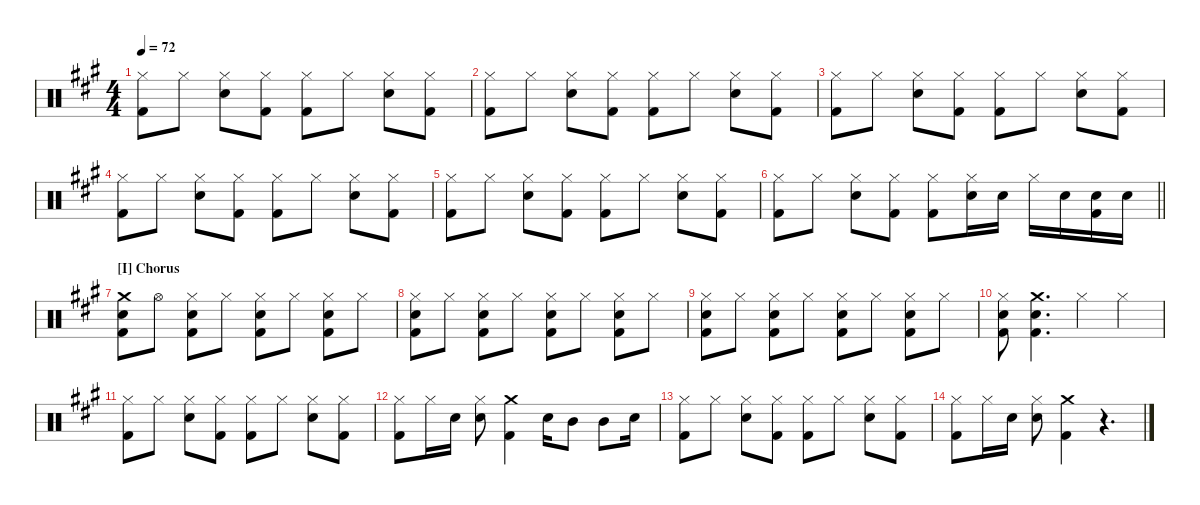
\hideDynamics
\bracketExtendMode nobrackets
\singleTrackTrackNamePolicy hidden
\multiTrackTrackNamePolicy hidden
\otherSystemsTrackNameOrientation horizontal
\track ("Drumkit" "Drums") {instrument percussion}
\staff {score}
\articulation defaults
\ts (4 4)
\tempo 72
\clef neutral
\ks a
("Hi-Hat (closed)"{acc forcenatural} "Kick (hit) 2"{acc forcenatural}).8{dy mf beam Down} "Hi-Hat (closed)"{acc forcenatural}.8{beam Down} ("Hi-Hat (closed)"{acc forcenatural} "Snare (hit) 2"{acc forcenatural}).8{beam Down} ("Hi-Hat (closed)"{acc forcenatural} "Kick (hit) 2"{acc forcenatural}).8{beam Down} ("Hi-Hat (closed)"{acc forcenatural} "Kick (hit) 2"{acc forcenatural}).8{beam Down} "Hi-Hat (closed)"{acc forcenatural}.8{beam Down} ("Hi-Hat (closed)"{acc forcenatural} "Snare (hit) 2"{acc forcenatural}).8{beam Down} ("Hi-Hat (closed)"{acc forcenatural} "Kick (hit) 2"{acc forcenatural}).8{beam Down} |
("Hi-Hat (closed)"{acc forcenatural} "Kick (hit) 2"{acc forcenatural}).8{beam Down} "Hi-Hat (closed)"{acc forcenatural}.8{beam Down} ("Hi-Hat (closed)"{acc forcenatural} "Snare (hit) 2"{acc forcenatural}).8{beam Down} ("Hi-Hat (closed)"{acc forcenatural} "Kick (hit) 2"{acc forcenatural}).8{beam Down} ("Hi-Hat (closed)"{acc forcenatural} "Kick (hit) 2"{acc forcenatural}).8{beam Down} "Hi-Hat (closed)"{acc forcenatural}.8{beam Down} ("Hi-Hat (closed)"{acc forcenatural} "Snare (hit) 2"{acc forcenatural}).8{beam Down} ("Hi-Hat (closed)"{acc forcenatural} "Kick (hit) 2"{acc forcenatural}).8{beam Down} |
("Hi-Hat (closed)"{acc forcenatural} "Kick (hit) 2"{acc forcenatural}).8{beam Down} "Hi-Hat (closed)"{acc forcenatural}.8{beam Down} ("Hi-Hat (closed)"{acc forcenatural} "Snare (hit) 2"{acc forcenatural}).8{beam Down} ("Hi-Hat (closed)"{acc forcenatural} "Kick (hit) 2"{acc forcenatural}).8{beam Down} ("Hi-Hat (closed)"{acc forcenatural} "Kick (hit) 2"{acc forcenatural}).8{beam Down} "Hi-Hat (closed)"{acc forcenatural}.8{beam Down} ("Hi-Hat (closed)"{acc forcenatural} "Snare (hit) 2"{acc forcenatural}).8{beam Down} ("Hi-Hat (closed)"{acc forcenatural} "Kick (hit) 2"{acc forcenatural}).8{beam Down} |
("Hi-Hat (closed)"{acc forcenatural} "Kick (hit) 2"{acc forcenatural}).8{beam Down} "Hi-Hat (closed)"{acc forcenatural}.8{beam Down} ("Hi-Hat (closed)"{acc forcenatural} "Snare (hit) 2"{acc forcenatural}).8{beam Down} ("Hi-Hat (closed)"{acc forcenatural} "Kick (hit) 2"{acc forcenatural}).8{beam Down} ("Hi-Hat (closed)"{acc forcenatural} "Kick (hit) 2"{acc forcenatural}).8{beam Down} "Hi-Hat (closed)"{acc forcenatural}.8{beam Down} ("Hi-Hat (closed)"{acc forcenatural} "Snare (hit) 2"{acc forcenatural}).8{beam Down} ("Hi-Hat (closed)"{acc forcenatural} "Kick (hit) 2"{acc forcenatural}).8{beam Down} |
("Hi-Hat (closed)"{acc forcenatural} "Kick (hit) 2"{acc forcenatural}).8{beam Down} "Hi-Hat (closed)"{acc forcenatural}.8{beam Down} ("Hi-Hat (closed)"{acc forcenatural} "Snare (hit) 2"{acc forcenatural}).8{beam Down} ("Hi-Hat (closed)"{acc forcenatural} "Kick (hit) 2"{acc forcenatural}).8{beam Down} ("Hi-Hat (closed)"{acc forcenatural} "Kick (hit) 2"{acc forcenatural}).8{beam Down} "Hi-Hat (closed)"{acc forcenatural}.8{beam Down} ("Hi-Hat (closed)"{acc forcenatural} "Snare (hit) 2"{acc forcenatural}).8{beam Down} ("Hi-Hat (closed)"{acc forcenatural} "Kick (hit) 2"{acc forcenatural}).8{beam Down} |
\barLineRight lightlight
("Kick (hit) 2"{acc forcenatural} "Hi-Hat (closed)"{acc forcenatural}).8{beam Down} "Hi-Hat (closed)"{acc forcenatural}.8{beam Down} ("Snare (hit) 2"{acc forcenatural} "Hi-Hat (closed)"{acc forcenatural}).8{beam Down} ("Kick (hit) 2"{acc forcenatural} "Hi-Hat (closed)"{acc forcenatural}).8{beam Down} ("Kick (hit) 2"{acc forcenatural} "Hi-Hat (closed)"{acc forcenatural}).8{beam Down} ("Snare (hit) 2"{acc forcenatural} "Hi-Hat (closed)"{acc forcenatural}).16{beam Down} "Snare (hit) 2"{acc forcenatural}.16{beam Down} "Hi-Hat (closed)"{acc forcenatural}.16{beam Down} "Snare (hit) 2"{acc forcenatural}.16{beam Down} ("Snare (hit) 2"{acc forcenatural} "Kick (hit) 2"{acc forcenatural}).16{beam Down} "Snare (hit) 2"{acc forcenatural}.16{beam Down} |
\section ("I" "Chorus")
("Snare (hit) 2"{acc forcenatural} "Crash medium (hit)"{acc forcenatural} "Kick (hit) 2"{acc forcenatural}).8{beam Down} "Hi-Hat (open)"{acc forcenatural}.8{beam Down} ("Kick (hit) 2"{acc forcenatural} "Hi-Hat (closed)"{acc forcenatural} "Snare (hit) 2"{acc forcenatural}).8{beam Down} "Hi-Hat (closed)"{acc forcenatural}.8{beam Down} ("Kick (hit) 2"{acc forcenatural} "Snare (hit) 2"{acc forcenatural} "Hi-Hat (closed)"{acc forcenatural}).8{beam Down} "Hi-Hat (closed)"{acc forcenatural}.8{beam Down} ("Kick (hit) 2"{acc forcenatural} "Snare (hit) 2"{acc forcenatural} "Hi-Hat (closed)"{acc forcenatural}).8{beam Down} "Hi-Hat (closed)"{acc forcenatural}.8{beam Down} |
("Hi-Hat (closed)"{acc forcenatural} "Snare (hit) 2"{acc forcenatural} "Kick (hit) 2"{acc forcenatural}).8{beam Down} "Hi-Hat (closed)"{acc forcenatural}.8{beam Down} ("Kick (hit) 2"{acc forcenatural} "Hi-Hat (closed)"{acc forcenatural} "Snare (hit) 2"{acc forcenatural}).8{beam Down} "Hi-Hat (closed)"{acc forcenatural}.8{beam Down} ("Kick (hit) 2"{acc forcenatural} "Snare (hit) 2"{acc forcenatural} "Hi-Hat (closed)"{acc forcenatural}).8{beam Down} "Hi-Hat (closed)"{acc forcenatural}.8{beam Down} ("Kick (hit) 2"{acc forcenatural} "Snare (hit) 2"{acc forcenatural} "Hi-Hat (closed)"{acc forcenatural}).8{beam Down} "Hi-Hat (closed)"{acc forcenatural}.8{beam Down} |
("Hi-Hat (closed)"{acc forcenatural} "Snare (hit) 2"{acc forcenatural} "Kick (hit) 2"{acc forcenatural}).8{beam Down} "Hi-Hat (closed)"{acc forcenatural}.8{beam Down} ("Kick (hit) 2"{acc forcenatural} "Hi-Hat (closed)"{acc forcenatural} "Snare (hit) 2"{acc forcenatural}).8{beam Down} "Hi-Hat (closed)"{acc forcenatural}.8{beam Down} ("Kick (hit) 2"{acc forcenatural} "Snare (hit) 2"{acc forcenatural} "Hi-Hat (closed)"{acc forcenatural}).8{beam Down} "Hi-Hat (closed)"{acc forcenatural}.8{beam Down} ("Kick (hit) 2"{acc forcenatural} "Snare (hit) 2"{acc forcenatural} "Hi-Hat (closed)"{acc forcenatural}).8{beam Down} "Hi-Hat (closed)"{acc forcenatural}.8{beam Down} |
("Hi-Hat (closed)"{acc forcenatural} "Snare (hit) 2"{acc forcenatural} "Kick (hit) 2"{acc forcenatural}).8{beam Down} ("Snare (hit) 2"{acc forcenatural} "Kick (hit) 2"{acc forcenatural} "Crash medium (hit)"{acc forcenatural}).4{d beam Down} "Hi-Hat (closed)"{acc forcenatural}.4{beam Down} "Hi-Hat (closed)"{acc forcenatural}.4{beam Down} |
("Hi-Hat (closed)"{acc forcenatural} "Kick (hit) 2"{acc forcenatural}).8{beam Down} "Hi-Hat (closed)"{acc forcenatural}.8{beam Down} ("Hi-Hat (closed)"{acc forcenatural} "Snare (hit) 2"{acc forcenatural}).8{beam Down} ("Hi-Hat (closed)"{acc forcenatural} "Kick (hit) 2"{acc forcenatural}).8{beam Down} ("Hi-Hat (closed)"{acc forcenatural} "Kick (hit) 2"{acc forcenatural}).8{beam Down} "Hi-Hat (closed)"{acc forcenatural}.8{beam Down} ("Hi-Hat (closed)"{acc forcenatural} "Snare (hit) 2"{acc forcenatural}).8{beam Down} ("Hi-Hat (closed)"{acc forcenatural} "Kick (hit) 2"{acc forcenatural}).8{beam Down} |
("Hi-Hat (closed)"{acc forcenatural} "Kick (hit) 2"{acc forcenatural}).8{beam Down} "Hi-Hat (closed)"{acc forcenatural}.16{beam Down} "Snare (hit) 2"{acc forcenatural}.16{beam Down} ("Hi-Hat (closed)"{acc forcenatural} "Snare (hit) 2"{acc forcenatural}).8{beam Down} ("Crash medium (hit)"{acc forcenatural} "Kick (hit) 2"{acc forcenatural}).4{beam Down} "Snare (hit) 2"{acc forcenatural}.16{beam Down} "Mid Tom (hit)"{acc forcenatural}.8{beam Down} "Mid Tom (hit)"{acc forcenatural}.8{beam Down} "Snare (hit) 2"{acc forcenatural}.16{beam Down} |
("Hi-Hat (closed)"{acc forcenatural} "Kick (hit) 2"{acc forcenatural}).8{beam Down} "Hi-Hat (closed)"{acc forcenatural}.8{beam Down} ("Hi-Hat (closed)"{acc forcenatural} "Snare (hit) 2"{acc forcenatural}).8{beam Down} ("Hi-Hat (closed)"{acc forcenatural} "Kick (hit) 2"{acc forcenatural}).8{beam Down} ("Hi-Hat (closed)"{acc forcenatural} "Kick (hit) 2"{acc forcenatural}).8{beam Down} "Hi-Hat (closed)"{acc forcenatural}.8{beam Down} ("Hi-Hat (closed)"{acc forcenatural} "Snare (hit) 2"{acc forcenatural}).8{beam Down} ("Hi-Hat (closed)"{acc forcenatural} "Kick (hit) 2"{acc forcenatural}).8{beam Down} |
("Hi-Hat (closed)"{acc forcenatural} "Kick (hit) 2"{acc forcenatural}).8{beam Down} "Hi-Hat (closed)"{acc forcenatural}.16{beam Down} "Snare (hit) 2"{acc forcenatural}.16{beam Down} ("Hi-Hat (closed)"{acc forcenatural} "Snare (hit) 2"{acc forcenatural}).8{beam Down} ("Crash medium (hit)"{acc forcenatural} "Kick (hit) 2"{acc forcenatural}).4{beam Down} r.4{d beam Down}
